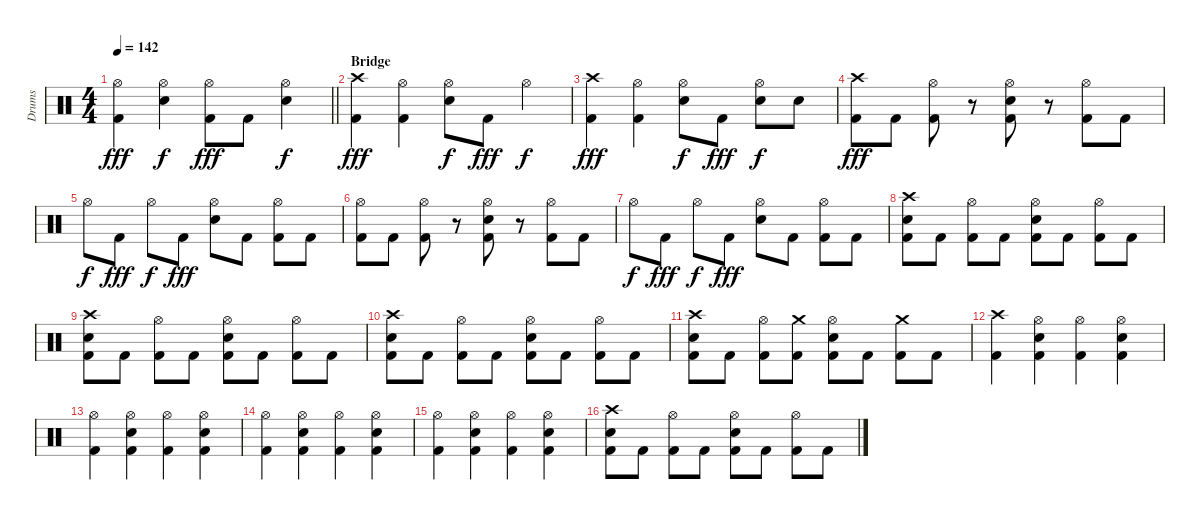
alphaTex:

\track ("Drums" "Drums") {instrument percussion}
\staff {score}
\articulation defaults
\ts (4 4)
\tempo 142
\clef neutral
\barLineRight lightlight
\ks c
("Hi-Hat (open)" "Kick (hit) 2").4{dy fff} ("Hi-Hat (open)" "Snare (hit) 2").4{dy f} ("Hi-Hat (open)" "Kick (hit) 2").8{dy fff} "Kick (hit) 2".8 ("Hi-Hat (open)" "Snare (hit) 2").4{dy f} |
\section ("" "Bridge")
("Crash high (hit)" "Kick (hit) 2").4{dy fff} ("Hi-Hat (open)" "Kick (hit) 2").4 ("Hi-Hat (open)" "Snare (hit) 2").8{dy f} "Kick (hit) 2".8{dy fff} "Hi-Hat (open)".4{dy f} |
("Crash high (hit)" "Kick (hit) 2").4{dy fff} ("Hi-Hat (open)" "Kick (hit) 2").4 ("Hi-Hat (open)" "Snare (hit) 2").8{dy f} "Kick (hit) 2".8{dy fff} ("Hi-Hat (open)" "Snare (hit) 2").8{dy f} "Snare (hit) 2".8 |
("Crash high (hit)" "Kick (hit) 2").8{dy fff} "Kick (hit) 2".8 ("Hi-Hat (open)" "Kick (hit) 2").8 r.8 ("Hi-Hat (open)" "Snare (hit) 2" "Kick (hit) 2").8 r.8 ("Hi-Hat (open)" "Kick (hit) 2").8 "Kick (hit) 2".8 |
"Hi-Hat (open)".8{dy f} "Kick (hit) 2".8{dy fff} "Hi-Hat (open)".8{dy f} "Kick (hit) 2".8{dy fff} ("Hi-Hat (open)" "Snare (hit) 2").8 "Kick (hit) 2".8 ("Hi-Hat (open)" "Kick (hit) 2").8 "Kick (hit) 2".8 |
("Hi-Hat (open)" "Kick (hit) 2").8 "Kick (hit) 2".8 ("Hi-Hat (open)" "Kick (hit) 2").8 r.8 ("Hi-Hat (open)" "Snare (hit) 2" "Kick (hit) 2").8 r.8 ("Hi-Hat (open)" "Kick (hit) 2").8 "Kick (hit) 2".8 |
"Hi-Hat (open)".8{dy f} "Kick (hit) 2".8{dy fff} "Hi-Hat (open)".8{dy f} "Kick (hit) 2".8{dy fff} ("Hi-Hat (open)" "Snare (hit) 2").8 "Kick (hit) 2".8 ("Hi-Hat (open)" "Kick (hit) 2").8 "Kick (hit) 2".8 |
("Crash high (hit)" "Snare (hit) 2" "Kick (hit) 2").8 "Kick (hit) 2".8 ("Hi-Hat (open)" "Kick (hit) 2").8 "Kick (hit) 2".8 ("Hi-Hat (open)" "Snare (hit) 2" "Kick (hit) 2").8 "Kick (hit) 2".8 ("Hi-Hat (open)" "Kick (hit) 2").8 "Kick (hit) 2".8 |
("Crash high (hit)" "Snare (hit) 2" "Kick (hit) 2").8 "Kick (hit) 2".8 ("Hi-Hat (open)" "Kick (hit) 2").8 "Kick (hit) 2".8 ("Hi-Hat (open)" "Snare (hit) 2" "Kick (hit) 2").8 "Kick (hit) 2".8 ("Hi-Hat (open)" "Kick (hit) 2").8 "Kick (hit) 2".8 |
("Crash high (hit)" "Snare (hit) 2" "Kick (hit) 2").8 "Kick (hit) 2".8 ("Hi-Hat (open)" "Kick (hit) 2").8 "Kick (hit) 2".8 ("Hi-Hat (open)" "Snare (hit) 2" "Kick (hit) 2").8 "Kick (hit) 2".8 ("Hi-Hat (open)" "Kick (hit) 2").8 "Kick (hit) 2".8 |
("Crash high (hit)" "Snare (hit) 2" "Kick (hit) 2").8 "Kick (hit) 2".8 ("Hi-Hat (open)" "Kick (hit) 2").8 ("Crash medium (hit)" "Kick (hit) 2").8 ("Hi-Hat (open)" "Snare (hit) 2" "Kick (hit) 2").8 "Kick (hit) 2".8 ("Crash medium (hit)" "Kick (hit) 2").8 "Kick (hit) 2".8 |
("Crash high (hit)" "Kick (hit) 2").4 ("Hi-Hat (open)" "Snare (hit) 2" "Kick (hit) 2").4 ("Hi-Hat (open)" "Kick (hit) 2").4 ("Hi-Hat (open)" "Snare (hit) 2" "Kick (hit) 2").4 |
("Hi-Hat (open)" "Kick (hit) 2").4 ("Hi-Hat (open)" "Snare (hit) 2" "Kick (hit) 2").4 ("Hi-Hat (open)" "Kick (hit) 2").4 ("Hi-Hat (open)" "Snare (hit) 2" "Kick (hit) 2").4 |
("Hi-Hat (open)" "Kick (hit) 2").4 ("Hi-Hat (open)" "Snare (hit) 2" "Kick (hit) 2").4 ("Hi-Hat (open)" "Kick (hit) 2").4 ("Hi-Hat (open)" "Snare (hit) 2" "Kick (hit) 2").4 |
("Hi-Hat (open)" "Kick (hit) 2").4 ("Hi-Hat (open)" "Snare (hit) 2" "Kick (hit) 2").4 ("Hi-Hat (open)" "Kick (hit) 2").4 ("Hi-Hat (open)" "Snare (hit) 2" "Kick (hit) 2").4 |
("Crash high (hit)" "Snare (hit) 2" "Kick (hit) 2").8 "Kick (hit) 2".8 ("Hi-Hat (open)" "Kick (hit) 2").8 "Kick (hit) 2".8 ("Hi-Hat (open)" "Snare (hit) 2" "Kick (hit) 2").8 "Kick (hit) 2".8 ("Hi-Hat (open)" "Kick (hit) 2").8 "Kick (hit) 2".8
